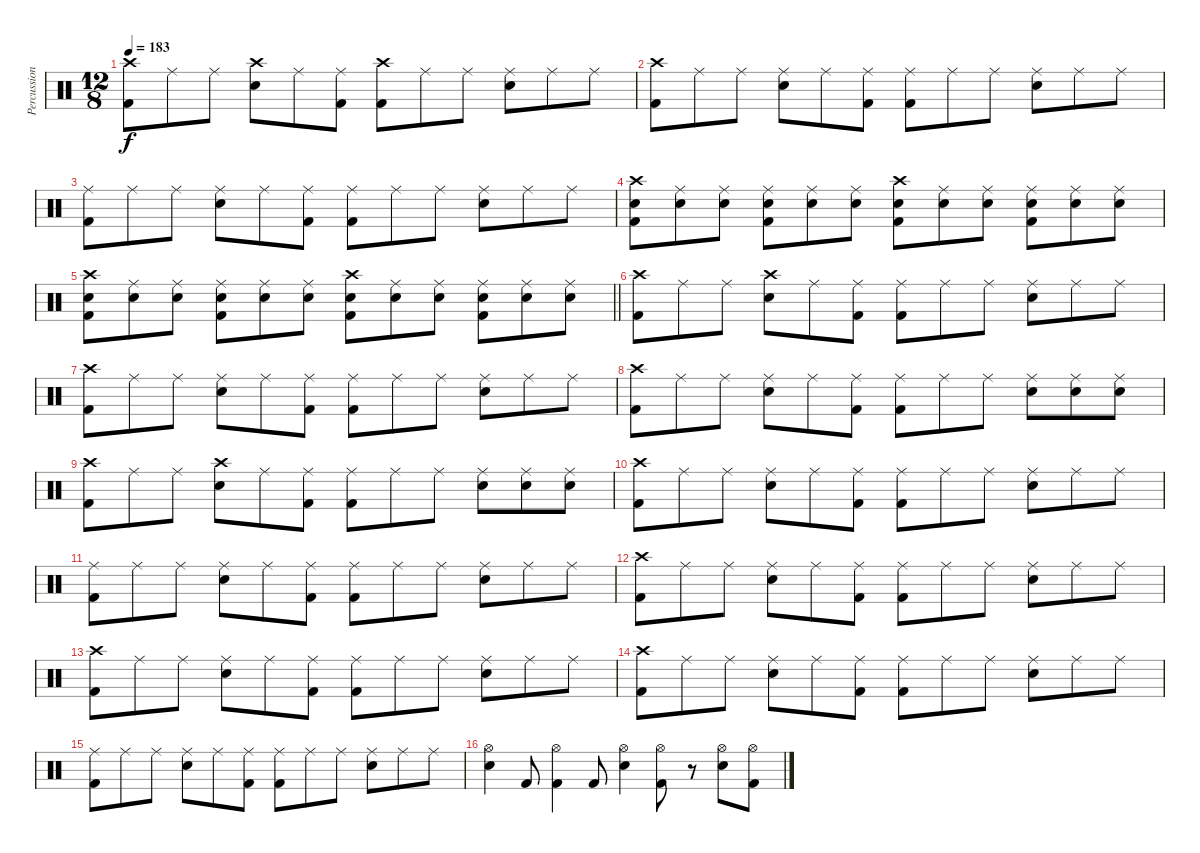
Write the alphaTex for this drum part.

\track ("Percussion" "Percussion") {instrument percussion}
\staff {score}
\articulation defaults
\ts (12 8)
\tempo 183
\clef neutral
\ks c
("Crash high (hit)" "Kick (hit) 2").8{dy f} "Ride (middle)".8 "Ride (middle)".8 ("Crash high (hit)" "Snare (hit) 2").8 "Ride (middle)".8 ("Ride (middle)" "Kick (hit) 2").8 ("Crash high (hit)" "Kick (hit) 2").8 "Ride (middle)".8 "Ride (middle)".8 ("Ride (middle)" "Snare (hit) 2").8 "Ride (middle)".8 "Ride (middle)".8 |
("Crash high (hit)" "Kick (hit) 2").8 "Ride (middle)".8 "Ride (middle)".8 ("Ride (middle)" "Snare (hit) 2").8 "Ride (middle)".8 ("Ride (middle)" "Kick (hit) 2").8 ("Ride (middle)" "Kick (hit) 2").8 "Ride (middle)".8 "Ride (middle)".8 ("Ride (middle)" "Snare (hit) 2").8 "Ride (middle)".8 "Ride (middle)".8 |
("Ride (middle)" "Kick (hit) 2").8 "Ride (middle)".8 "Ride (middle)".8 ("Ride (middle)" "Snare (hit) 2").8 "Ride (middle)".8 ("Ride (middle)" "Kick (hit) 2").8 ("Ride (middle)" "Kick (hit) 2").8 "Ride (middle)".8 "Ride (middle)".8 ("Ride (middle)" "Snare (hit) 2").8 "Ride (middle)".8 "Ride (middle)".8 |
("Crash high (hit)" "Snare (hit) 2" "Kick (hit) 2").8 ("Ride (middle)" "Snare (hit) 2").8 ("Ride (middle)" "Snare (hit) 2").8 ("Ride (middle)" "Snare (hit) 2" "Kick (hit) 2").8 ("Ride (middle)" "Snare (hit) 2").8 ("Ride (middle)" "Snare (hit) 2").8 ("Crash high (hit)" "Snare (hit) 2" "Kick (hit) 2").8 ("Ride (middle)" "Snare (hit) 2").8 ("Ride (middle)" "Snare (hit) 2").8 ("Ride (middle)" "Snare (hit) 2" "Kick (hit) 2").8 ("Ride (middle)" "Snare (hit) 2").8 ("Ride (middle)" "Snare (hit) 2").8 |
\barLineRight lightlight
("Crash high (hit)" "Snare (hit) 2" "Kick (hit) 2").8 ("Ride (middle)" "Snare (hit) 2").8 ("Ride (middle)" "Snare (hit) 2").8 ("Ride (middle)" "Snare (hit) 2" "Kick (hit) 2").8 ("Ride (middle)" "Snare (hit) 2").8 ("Ride (middle)" "Snare (hit) 2").8 ("Crash high (hit)" "Snare (hit) 2" "Kick (hit) 2").8 ("Ride (middle)" "Snare (hit) 2").8 ("Ride (middle)" "Snare (hit) 2").8 ("Ride (middle)" "Snare (hit) 2" "Kick (hit) 2").8 ("Ride (middle)" "Snare (hit) 2").8 ("Ride (middle)" "Snare (hit) 2").8 |
("Crash high (hit)" "Kick (hit) 2").8 "Ride (middle)".8 "Ride (middle)".8 ("Crash high (hit)" "Snare (hit) 2").8 "Ride (middle)".8 ("Ride (middle)" "Kick (hit) 2").8 ("Ride (middle)" "Kick (hit) 2").8 "Ride (middle)".8 "Ride (middle)".8 ("Ride (middle)" "Snare (hit) 2").8 "Ride (middle)".8 "Ride (middle)".8 |
("Crash high (hit)" "Kick (hit) 2").8 "Ride (middle)".8 "Ride (middle)".8 ("Ride (middle)" "Snare (hit) 2").8 "Ride (middle)".8 ("Ride (middle)" "Kick (hit) 2").8 ("Ride (middle)" "Kick (hit) 2").8 "Ride (middle)".8 "Ride (middle)".8 ("Ride (middle)" "Snare (hit) 2").8 "Ride (middle)".8 "Ride (middle)".8 |
("Crash high (hit)" "Kick (hit) 2").8 "Ride (middle)".8 "Ride (middle)".8 ("Ride (middle)" "Snare (hit) 2").8 "Ride (middle)".8 ("Ride (middle)" "Kick (hit) 2").8 ("Ride (middle)" "Kick (hit) 2").8 "Ride (middle)".8 "Ride (middle)".8 ("Ride (middle)" "Snare (hit) 2").8 ("Ride (middle)" "Snare (hit) 2").8 ("Ride (middle)" "Snare (hit) 2").8 |
("Crash high (hit)" "Kick (hit) 2").8 "Ride (middle)".8 "Ride (middle)".8 ("Crash high (hit)" "Snare (hit) 2").8 "Ride (middle)".8 ("Ride (middle)" "Kick (hit) 2").8 ("Ride (middle)" "Kick (hit) 2").8 "Ride (middle)".8 "Ride (middle)".8 ("Ride (middle)" "Snare (hit) 2").8 ("Ride (middle)" "Snare (hit) 2").8 ("Ride (middle)" "Snare (hit) 2").8 |
("Crash high (hit)" "Kick (hit) 2").8 "Ride (middle)".8 "Ride (middle)".8 ("Ride (middle)" "Snare (hit) 2").8 "Ride (middle)".8 ("Ride (middle)" "Kick (hit) 2").8 ("Ride (middle)" "Kick (hit) 2").8 "Ride (middle)".8 "Ride (middle)".8 ("Ride (middle)" "Snare (hit) 2").8 "Ride (middle)".8 "Ride (middle)".8 |
("Ride (middle)" "Kick (hit) 2").8 "Ride (middle)".8 "Ride (middle)".8 ("Ride (middle)" "Snare (hit) 2").8 "Ride (middle)".8 ("Ride (middle)" "Kick (hit) 2").8 ("Ride (middle)" "Kick (hit) 2").8 "Ride (middle)".8 "Ride (middle)".8 ("Ride (middle)" "Snare (hit) 2").8 "Ride (middle)".8 "Ride (middle)".8 |
("Crash high (hit)" "Kick (hit) 2").8 "Ride (middle)".8 "Ride (middle)".8 ("Ride (middle)" "Snare (hit) 2").8 "Ride (middle)".8 ("Ride (middle)" "Kick (hit) 2").8 ("Ride (middle)" "Kick (hit) 2").8 "Ride (middle)".8 "Ride (middle)".8 ("Ride (middle)" "Snare (hit) 2").8 "Ride (middle)".8 "Ride (middle)".8 |
("Crash high (hit)" "Kick (hit) 2").8 "Ride (middle)".8 "Ride (middle)".8 ("Ride (middle)" "Snare (hit) 2").8 "Ride (middle)".8 ("Ride (middle)" "Kick (hit) 2").8 ("Ride (middle)" "Kick (hit) 2").8 "Ride (middle)".8 "Ride (middle)".8 ("Ride (middle)" "Snare (hit) 2").8 "Ride (middle)".8 "Ride (middle)".8 |
("Crash high (hit)" "Kick (hit) 2").8 "Ride (middle)".8 "Ride (middle)".8 ("Ride (middle)" "Snare (hit) 2").8 "Ride (middle)".8 ("Ride (middle)" "Kick (hit) 2").8 ("Ride (middle)" "Kick (hit) 2").8 "Ride (middle)".8 "Ride (middle)".8 ("Ride (middle)" "Snare (hit) 2").8 "Ride (middle)".8 "Ride (middle)".8 |
("Ride (middle)" "Kick (hit) 2").8 "Ride (middle)".8 "Ride (middle)".8 ("Ride (middle)" "Snare (hit) 2").8 "Ride (middle)".8 ("Ride (middle)" "Kick (hit) 2").8 ("Ride (middle)" "Kick (hit) 2").8 "Ride (middle)".8 "Ride (middle)".8 ("Ride (middle)" "Snare (hit) 2").8 "Ride (middle)".8 "Ride (middle)".8 |
("Hi-Hat (open)" "Snare (hit) 2").4 "Kick (hit) 2".8 ("Hi-Hat (open)" "Kick (hit) 2").4 "Kick (hit) 2".8 ("Hi-Hat (open)" "Snare (hit) 2").4 ("Hi-Hat (open)" "Kick (hit) 2").8 r.8 ("Hi-Hat (open)" "Snare (hit) 2").8 ("Hi-Hat (open)" "Kick (hit) 2").8
